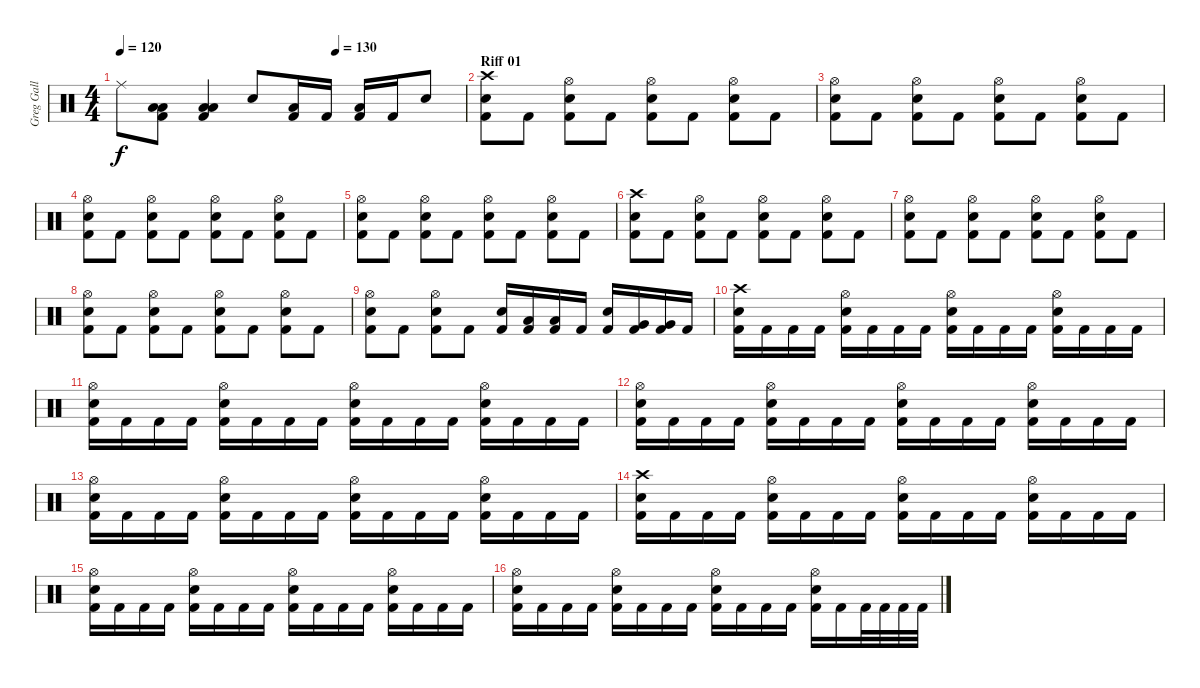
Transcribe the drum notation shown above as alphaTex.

\track ("Greg Gall" "Greg Gall") {instrument percussion}
\staff {score}
\articulation defaults
\ts (4 4)
\tempo 120
\tempo (130 0.625)
\clef neutral
\ks c "Ride (middle)".8{dy f}
("Low Floor Tom (hit)" "Low Floor Tom (hit)" "Kick (hit) 2").8 ("Low Floor Tom (hit)" "Low Floor Tom (hit)" "Kick (hit) 2").4 "Electric Snare (hit)".8 ("Low Tom (hit)" "Kick (hit) 2").16 "Kick (hit) 2".16 ("Low Tom (hit)" "Kick (hit) 2").16 "Kick (hit) 2".16 "Electric Snare (hit)".8 |
\section ("" "Riff 01")
("Crash high (hit)" "Electric Snare (hit)" "Kick (hit) 2").8 "Kick (hit) 2".8 ("Hi-Hat (open)" "Electric Snare (hit)" "Kick (hit) 2").8 "Kick (hit) 2".8 ("Hi-Hat (open)" "Electric Snare (hit)" "Kick (hit) 2").8 "Kick (hit) 2".8 ("Hi-Hat (open)" "Electric Snare (hit)" "Kick (hit) 2").8 "Kick (hit) 2".8 |
("Hi-Hat (open)" "Electric Snare (hit)" "Kick (hit) 2").8 "Kick (hit) 2".8 ("Hi-Hat (open)" "Electric Snare (hit)" "Kick (hit) 2").8 "Kick (hit) 2".8 ("Hi-Hat (open)" "Electric Snare (hit)" "Kick (hit) 2").8 "Kick (hit) 2".8 ("Hi-Hat (open)" "Electric Snare (hit)" "Kick (hit) 2").8 "Kick (hit) 2".8 |
("Hi-Hat (open)" "Electric Snare (hit)" "Kick (hit) 2").8 "Kick (hit) 2".8 ("Hi-Hat (open)" "Electric Snare (hit)" "Kick (hit) 2").8 "Kick (hit) 2".8 ("Hi-Hat (open)" "Electric Snare (hit)" "Kick (hit) 2").8 "Kick (hit) 2".8 ("Hi-Hat (open)" "Electric Snare (hit)" "Kick (hit) 2").8 "Kick (hit) 2".8 |
("Hi-Hat (open)" "Electric Snare (hit)" "Kick (hit) 2").8 "Kick (hit) 2".8 ("Hi-Hat (open)" "Electric Snare (hit)" "Kick (hit) 2").8 "Kick (hit) 2".8 ("Hi-Hat (open)" "Electric Snare (hit)" "Kick (hit) 2").8 "Kick (hit) 2".8 ("Hi-Hat (open)" "Electric Snare (hit)" "Kick (hit) 2").8 "Kick (hit) 2".8 |
("Crash high (hit)" "Electric Snare (hit)" "Kick (hit) 2").8 "Kick (hit) 2".8 ("Hi-Hat (open)" "Electric Snare (hit)" "Kick (hit) 2").8 "Kick (hit) 2".8 ("Hi-Hat (open)" "Electric Snare (hit)" "Kick (hit) 2").8 "Kick (hit) 2".8 ("Hi-Hat (open)" "Electric Snare (hit)" "Kick (hit) 2").8 "Kick (hit) 2".8 |
("Hi-Hat (open)" "Electric Snare (hit)" "Kick (hit) 2").8 "Kick (hit) 2".8 ("Hi-Hat (open)" "Electric Snare (hit)" "Kick (hit) 2").8 "Kick (hit) 2".8 ("Hi-Hat (open)" "Electric Snare (hit)" "Kick (hit) 2").8 "Kick (hit) 2".8 ("Hi-Hat (open)" "Electric Snare (hit)" "Kick (hit) 2").8 "Kick (hit) 2".8 |
("Hi-Hat (open)" "Electric Snare (hit)" "Kick (hit) 2").8 "Kick (hit) 2".8 ("Hi-Hat (open)" "Electric Snare (hit)" "Kick (hit) 2").8 "Kick (hit) 2".8 ("Hi-Hat (open)" "Electric Snare (hit)" "Kick (hit) 2").8 "Kick (hit) 2".8 ("Hi-Hat (open)" "Electric Snare (hit)" "Kick (hit) 2").8 "Kick (hit) 2".8 |
("Hi-Hat (open)" "Electric Snare (hit)" "Kick (hit) 2").8 "Kick (hit) 2".8 ("Hi-Hat (open)" "Electric Snare (hit)" "Kick (hit) 2").8 "Kick (hit) 2".8 ("Electric Snare (hit)" "Kick (hit) 2").16 ("Low Tom (hit)" "Kick (hit) 2").16 ("Low Tom (hit)" "Kick (hit) 2").16 "Kick (hit) 2".16 ("Electric Snare (hit)" "Kick (hit) 2").16 ("Very Low Tom (hit)" "Kick (hit) 2").16 ("Very Low Tom (hit)" "Kick (hit) 2").16 "Kick (hit) 2".16 |
("Crash high (hit)" "Electric Snare (hit)" "Kick (hit) 2").16 "Kick (hit) 2".16 "Kick (hit) 2".16 "Kick (hit) 2".16 ("Hi-Hat (open)" "Electric Snare (hit)" "Kick (hit) 2").16 "Kick (hit) 2".16 "Kick (hit) 2".16 "Kick (hit) 2".16 ("Hi-Hat (open)" "Electric Snare (hit)" "Kick (hit) 2").16 "Kick (hit) 2".16 "Kick (hit) 2".16 "Kick (hit) 2".16 ("Hi-Hat (open)" "Electric Snare (hit)" "Kick (hit) 2").16 "Kick (hit) 2".16 "Kick (hit) 2".16 "Kick (hit) 2".16 |
("Hi-Hat (open)" "Electric Snare (hit)" "Kick (hit) 2").16 "Kick (hit) 2".16 "Kick (hit) 2".16 "Kick (hit) 2".16 ("Hi-Hat (open)" "Electric Snare (hit)" "Kick (hit) 2").16 "Kick (hit) 2".16 "Kick (hit) 2".16 "Kick (hit) 2".16 ("Hi-Hat (open)" "Electric Snare (hit)" "Kick (hit) 2").16 "Kick (hit) 2".16 "Kick (hit) 2".16 "Kick (hit) 2".16 ("Hi-Hat (open)" "Electric Snare (hit)" "Kick (hit) 2").16 "Kick (hit) 2".16 "Kick (hit) 2".16 "Kick (hit) 2".16 |
("Hi-Hat (open)" "Electric Snare (hit)" "Kick (hit) 2").16 "Kick (hit) 2".16 "Kick (hit) 2".16 "Kick (hit) 2".16 ("Hi-Hat (open)" "Electric Snare (hit)" "Kick (hit) 2").16 "Kick (hit) 2".16 "Kick (hit) 2".16 "Kick (hit) 2".16 ("Hi-Hat (open)" "Electric Snare (hit)" "Kick (hit) 2").16 "Kick (hit) 2".16 "Kick (hit) 2".16 "Kick (hit) 2".16 ("Hi-Hat (open)" "Electric Snare (hit)" "Kick (hit) 2").16 "Kick (hit) 2".16 "Kick (hit) 2".16 "Kick (hit) 2".16 |
("Hi-Hat (open)" "Electric Snare (hit)" "Kick (hit) 2").16 "Kick (hit) 2".16 "Kick (hit) 2".16 "Kick (hit) 2".16 ("Hi-Hat (open)" "Electric Snare (hit)" "Kick (hit) 2").16 "Kick (hit) 2".16 "Kick (hit) 2".16 "Kick (hit) 2".16 ("Hi-Hat (open)" "Electric Snare (hit)" "Kick (hit) 2").16 "Kick (hit) 2".16 "Kick (hit) 2".16 "Kick (hit) 2".16 ("Hi-Hat (open)" "Electric Snare (hit)" "Kick (hit) 2").16 "Kick (hit) 2".16 "Kick (hit) 2".16 "Kick (hit) 2".16 |
("Crash high (hit)" "Electric Snare (hit)" "Kick (hit) 2").16 "Kick (hit) 2".16 "Kick (hit) 2".16 "Kick (hit) 2".16 ("Hi-Hat (open)" "Electric Snare (hit)" "Kick (hit) 2").16 "Kick (hit) 2".16 "Kick (hit) 2".16 "Kick (hit) 2".16 ("Hi-Hat (open)" "Electric Snare (hit)" "Kick (hit) 2").16 "Kick (hit) 2".16 "Kick (hit) 2".16 "Kick (hit) 2".16 ("Hi-Hat (open)" "Electric Snare (hit)" "Kick (hit) 2").16 "Kick (hit) 2".16 "Kick (hit) 2".16 "Kick (hit) 2".16 |
("Hi-Hat (open)" "Electric Snare (hit)" "Kick (hit) 2").16 "Kick (hit) 2".16 "Kick (hit) 2".16 "Kick (hit) 2".16 ("Hi-Hat (open)" "Electric Snare (hit)" "Kick (hit) 2").16 "Kick (hit) 2".16 "Kick (hit) 2".16 "Kick (hit) 2".16 ("Hi-Hat (open)" "Electric Snare (hit)" "Kick (hit) 2").16 "Kick (hit) 2".16 "Kick (hit) 2".16 "Kick (hit) 2".16 ("Hi-Hat (open)" "Electric Snare (hit)" "Kick (hit) 2").16 "Kick (hit) 2".16 "Kick (hit) 2".16 "Kick (hit) 2".16 |
("Hi-Hat (open)" "Electric Snare (hit)" "Kick (hit) 2").16 "Kick (hit) 2".16 "Kick (hit) 2".16 "Kick (hit) 2".16 ("Hi-Hat (open)" "Electric Snare (hit)" "Kick (hit) 2").16 "Kick (hit) 2".16 "Kick (hit) 2".16 "Kick (hit) 2".16 ("Hi-Hat (open)" "Electric Snare (hit)" "Kick (hit) 2").16 "Kick (hit) 2".16 "Kick (hit) 2".16 "Kick (hit) 2".16 ("Hi-Hat (open)" "Electric Snare (hit)" "Kick (hit) 2").16 "Kick (hit) 2".16 "Kick (hit) 2".32 "Kick (hit) 2".32 "Kick (hit) 2".32 "Kick (hit) 2".32
